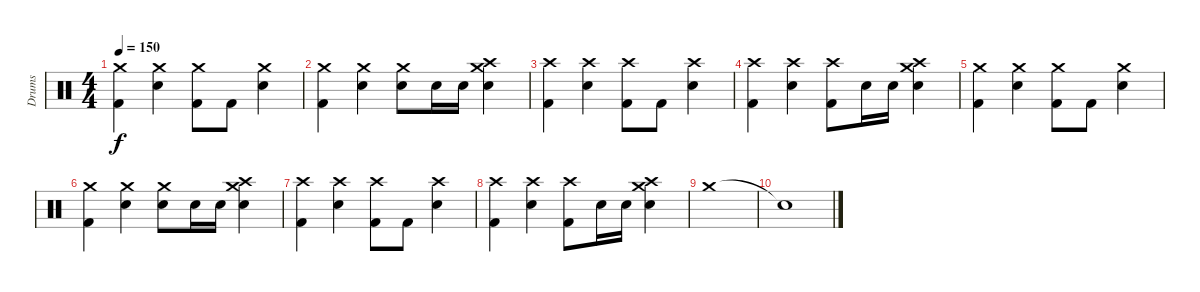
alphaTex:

\track ("Drums" "Drums") {instrument percussion}
\staff {score}
\articulation defaults
\ts (4 4)
\tempo 150
\clef neutral
\ks c
("Crash medium (hit)" "Kick (hit) 2").4{dy f volume 15} ("Crash medium (hit)" "Electric Snare (hit)").4 ("Crash medium (hit)" "Kick (hit) 2").8 "Kick (hit) 2".8 ("Crash medium (hit)" "Electric Snare (hit)").4 |
("Crash medium (hit)" "Kick (hit) 2").4 ("Crash medium (hit)" "Electric Snare (hit)").4 ("Crash medium (hit)" "Electric Snare (hit)").8 "Electric Snare (hit)".16 "Electric Snare (hit)".16 ("Crash high (hit)" "Crash medium (hit)" "Electric Snare (hit)").4 |
("Crash high (hit)" "Kick (hit) 2").4 ("Crash high (hit)" "Electric Snare (hit)").4 ("Crash high (hit)" "Kick (hit) 2").8 "Kick (hit) 2".8 ("Crash high (hit)" "Electric Snare (hit)").4 |
("Crash high (hit)" "Kick (hit) 2").4 ("Crash high (hit)" "Electric Snare (hit)").4 ("Crash high (hit)" "Kick (hit) 2").8 "Electric Snare (hit)".16 "Electric Snare (hit)".16 ("Crash medium (hit)" "Crash high (hit)" "Electric Snare (hit)").4 |
("Crash medium (hit)" "Kick (hit) 2").4 ("Crash medium (hit)" "Electric Snare (hit)").4 ("Crash medium (hit)" "Kick (hit) 2").8 "Kick (hit) 2".8 ("Crash medium (hit)" "Electric Snare (hit)").4 |
("Crash medium (hit)" "Kick (hit) 2").4 ("Crash medium (hit)" "Electric Snare (hit)").4 ("Crash medium (hit)" "Electric Snare (hit)").8 "Electric Snare (hit)".16 "Electric Snare (hit)".16 ("Crash high (hit)" "Crash medium (hit)" "Electric Snare (hit)").4 |
("Crash high (hit)" "Kick (hit) 2").4 ("Crash high (hit)" "Electric Snare (hit)").4 ("Crash high (hit)" "Kick (hit) 2").8 "Kick (hit) 2".8 ("Crash high (hit)" "Electric Snare (hit)").4 |
("Crash high (hit)" "Kick (hit) 2").4 ("Crash high (hit)" "Electric Snare (hit)").4 ("Crash high (hit)" "Kick (hit) 2").8 "Electric Snare (hit)".16 "Electric Snare (hit)".16 ("Crash medium (hit)" "Crash high (hit)" "Electric Snare (hit)").4 |
"Crash medium (hit)".1 |
"Snare (hit)"{t}.1
